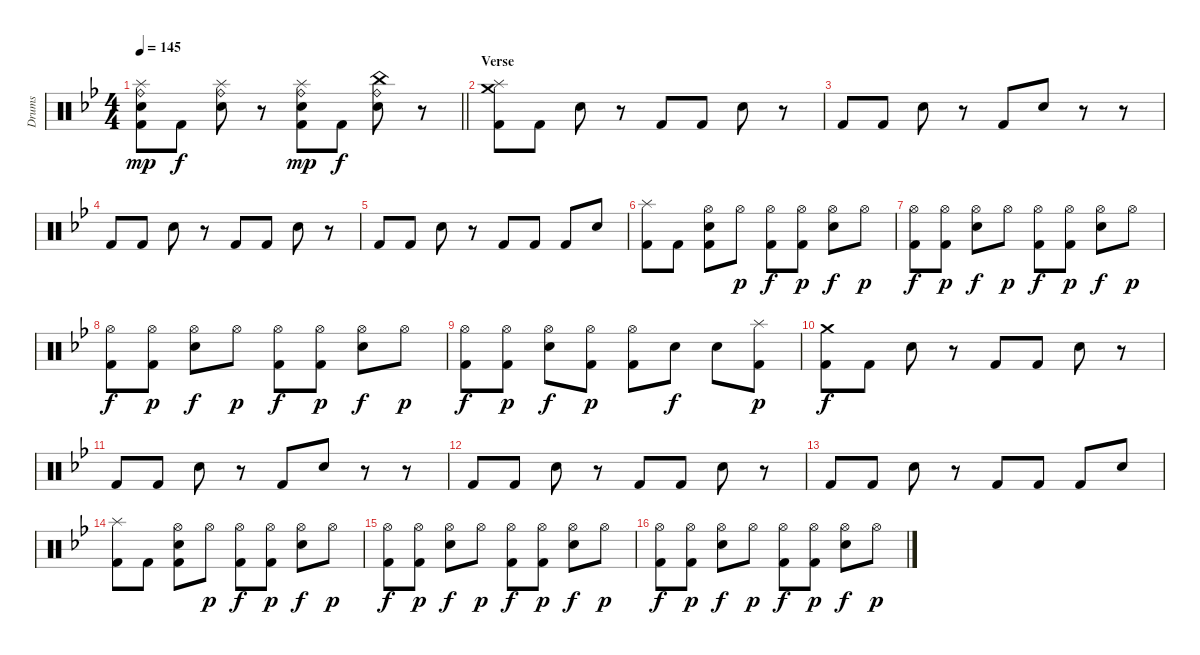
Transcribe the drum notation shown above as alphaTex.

\track ("Drums" "Drums") {instrument percussion}
\staff {score}
\articulation defaults
\ts (4 4)
\tempo 145
\clef neutral
\barLineRight lightlight
\ks bb
("Ride (bell)" "Splash (hit)" "Electric Snare (hit)" "Kick (hit) 2").8{dy mp} "Kick (hit) 2".8{dy f} ("Ride (bell)" "Splash (hit)" "Electric Snare (hit)").8 r.8 ("Ride (bell)" "Splash (hit)" "Electric Snare (hit)" "Kick (hit) 2").8{dy mp} "Kick (hit) 2".8{dy f} ("Ride (bell)" "China (hit)" "Electric Snare (hit)").8 r.8 |
\section ("" "Verse")
("Crash medium (hit)" "Splash (hit)" "Kick (hit) 2").8 "Kick (hit) 2".8 "Electric Snare (hit)".8 r.8 "Kick (hit) 2".8 "Kick (hit) 2".8 "Electric Snare (hit)".8 r.8 |
"Kick (hit) 2".8 "Kick (hit) 2".8 "Electric Snare (hit)".8 r.8 "Kick (hit) 2".8 "Electric Snare (hit)".8 r.8 r.8 |
"Kick (hit) 2".8 "Kick (hit) 2".8 "Electric Snare (hit)".8 r.8 "Kick (hit) 2".8 "Kick (hit) 2".8 "Electric Snare (hit)".8 r.8 |
"Kick (hit) 2".8 "Kick (hit) 2".8 "Electric Snare (hit)".8 r.8 "Kick (hit) 2".8 "Kick (hit) 2".8 "Kick (hit) 2".8 "Electric Snare (hit)".8 |
("Splash (hit)" "Kick (hit) 2").8 "Kick (hit) 2".8 ("Hi-Hat (open)" "Electric Snare (hit)" "Kick (hit) 2").8 "Hi-Hat (open)".8{dy p} ("Hi-Hat (open)" "Kick (hit) 2").8{dy f} ("Hi-Hat (open)" "Kick (hit) 2").8{dy p} ("Hi-Hat (open)" "Electric Snare (hit)").8{dy f} "Hi-Hat (open)".8{dy p} |
("Hi-Hat (open)" "Kick (hit) 2").8{dy f} ("Hi-Hat (open)" "Kick (hit) 2").8{dy p} ("Hi-Hat (open)" "Electric Snare (hit)").8{dy f} "Hi-Hat (open)".8{dy p} ("Hi-Hat (open)" "Kick (hit) 2").8{dy f} ("Hi-Hat (open)" "Kick (hit) 2").8{dy p} ("Hi-Hat (open)" "Electric Snare (hit)").8{dy f} "Hi-Hat (open)".8{dy p} |
("Hi-Hat (open)" "Kick (hit) 2").8{dy f} ("Hi-Hat (open)" "Kick (hit) 2").8{dy p} ("Hi-Hat (open)" "Electric Snare (hit)").8{dy f} "Hi-Hat (open)".8{dy p} ("Hi-Hat (open)" "Kick (hit) 2").8{dy f} ("Hi-Hat (open)" "Kick (hit) 2").8{dy p} ("Hi-Hat (open)" "Electric Snare (hit)").8{dy f} "Hi-Hat (open)".8{dy p} |
("Hi-Hat (open)" "Kick (hit) 2").8{dy f} ("Hi-Hat (open)" "Kick (hit) 2").8{dy p} ("Hi-Hat (open)" "Electric Snare (hit)").8{dy f} ("Hi-Hat (open)" "Kick (hit) 2").8{dy p} ("Hi-Hat (open)" "Kick (hit) 2").8 "Electric Snare (hit)".8{dy f} "Electric Snare (hit)".8 ("Splash (hit)" "Kick (hit) 2").8{dy p} |
("Crash medium (hit)" "Kick (hit) 2").8{dy f} "Kick (hit) 2".8 "Electric Snare (hit)".8 r.8 "Kick (hit) 2".8 "Kick (hit) 2".8 "Electric Snare (hit)".8 r.8 |
"Kick (hit) 2".8 "Kick (hit) 2".8 "Electric Snare (hit)".8 r.8 "Kick (hit) 2".8 "Electric Snare (hit)".8 r.8 r.8 |
"Kick (hit) 2".8 "Kick (hit) 2".8 "Electric Snare (hit)".8 r.8 "Kick (hit) 2".8 "Kick (hit) 2".8 "Electric Snare (hit)".8 r.8 |
"Kick (hit) 2".8 "Kick (hit) 2".8 "Electric Snare (hit)".8 r.8 "Kick (hit) 2".8 "Kick (hit) 2".8 "Kick (hit) 2".8 "Electric Snare (hit)".8 |
("Splash (hit)" "Kick (hit) 2").8 "Kick (hit) 2".8 ("Hi-Hat (open)" "Electric Snare (hit)" "Kick (hit) 2").8 "Hi-Hat (open)".8{dy p} ("Hi-Hat (open)" "Kick (hit) 2").8{dy f} ("Hi-Hat (open)" "Kick (hit) 2").8{dy p} ("Hi-Hat (open)" "Electric Snare (hit)").8{dy f} "Hi-Hat (open)".8{dy p} |
("Hi-Hat (open)" "Kick (hit) 2").8{dy f} ("Hi-Hat (open)" "Kick (hit) 2").8{dy p} ("Hi-Hat (open)" "Electric Snare (hit)").8{dy f} "Hi-Hat (open)".8{dy p} ("Hi-Hat (open)" "Kick (hit) 2").8{dy f} ("Hi-Hat (open)" "Kick (hit) 2").8{dy p} ("Hi-Hat (open)" "Electric Snare (hit)").8{dy f} "Hi-Hat (open)".8{dy p} |
("Hi-Hat (open)" "Kick (hit) 2").8{dy f} ("Hi-Hat (open)" "Kick (hit) 2").8{dy p} ("Hi-Hat (open)" "Electric Snare (hit)").8{dy f} "Hi-Hat (open)".8{dy p} ("Hi-Hat (open)" "Kick (hit) 2").8{dy f} ("Hi-Hat (open)" "Kick (hit) 2").8{dy p} ("Hi-Hat (open)" "Electric Snare (hit)").8{dy f} "Hi-Hat (open)".8{dy p}
